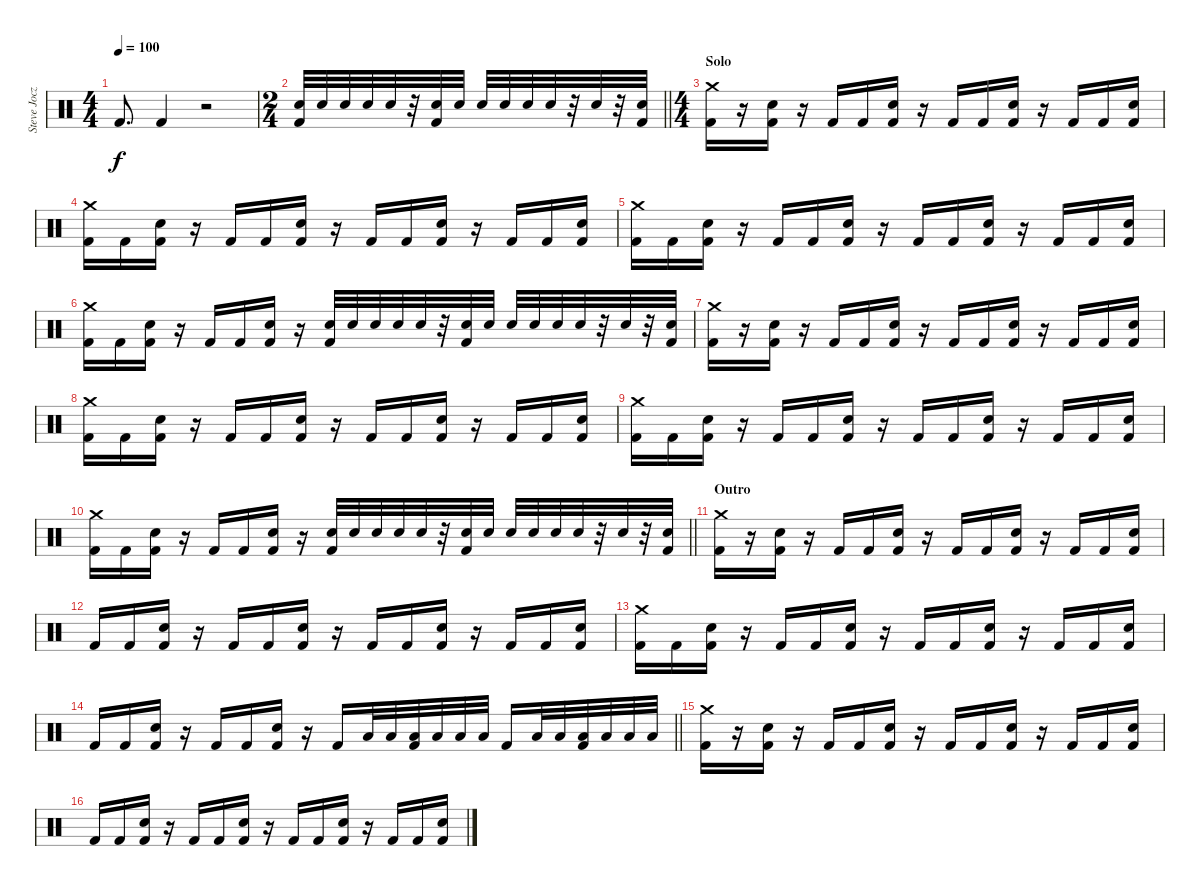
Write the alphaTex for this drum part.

\track ("Steve Jocz" "Steve Jocz") {instrument percussion}
\staff {score}
\articulation defaults
\ts (4 4)
\tempo 100
\clef neutral
\ks c "Kick (hit) 2".8{d dy f} "Kick (hit) 2".4
r.2 |
\ts (2 4)
\barLineRight lightlight
("Snare (hit) 2" "Kick (hit) 2").32 "Snare (hit) 2".32 "Snare (hit) 2".32 "Snare (hit) 2".32 "Snare (hit) 2".32 r.32 ("Snare (hit) 2" "Kick (hit) 2").32 "Snare (hit) 2".32 "Snare (hit) 2".32 "Snare (hit) 2".32 "Snare (hit) 2".32 "Snare (hit) 2".32 r.32 "Snare (hit) 2".32 r.32 ("Snare (hit) 2" "Kick (hit) 2").32 |
\ts (4 4)
\section ("" "Solo")
("Crash medium (hit)" "Kick (hit) 2").16 r.16 ("Snare (hit) 2" "Kick (hit) 2").16 r.16 "Kick (hit) 2".16 "Kick (hit) 2".16 ("Snare (hit) 2" "Kick (hit) 2").16 r.16 "Kick (hit) 2".16 "Kick (hit) 2".16 ("Snare (hit) 2" "Kick (hit) 2").16 r.16 "Kick (hit) 2".16 "Kick (hit) 2".16 ("Snare (hit) 2" "Kick (hit) 2").16 |
("Crash medium (hit)" "Kick (hit) 2").16 "Kick (hit) 2".16 ("Snare (hit) 2" "Kick (hit) 2").16 r.16 "Kick (hit) 2".16 "Kick (hit) 2".16 ("Snare (hit) 2" "Kick (hit) 2").16 r.16 "Kick (hit) 2".16 "Kick (hit) 2".16 ("Snare (hit) 2" "Kick (hit) 2").16 r.16 "Kick (hit) 2".16 "Kick (hit) 2".16 ("Snare (hit) 2" "Kick (hit) 2").16 |
("Crash medium (hit)" "Kick (hit) 2").16 "Kick (hit) 2".16 ("Snare (hit) 2" "Kick (hit) 2").16 r.16 "Kick (hit) 2".16 "Kick (hit) 2".16 ("Snare (hit) 2" "Kick (hit) 2").16 r.16 "Kick (hit) 2".16 "Kick (hit) 2".16 ("Snare (hit) 2" "Kick (hit) 2").16 r.16 "Kick (hit) 2".16 "Kick (hit) 2".16 ("Snare (hit) 2" "Kick (hit) 2").16 |
("Crash medium (hit)" "Kick (hit) 2").16 "Kick (hit) 2".16 ("Snare (hit) 2" "Kick (hit) 2").16 r.16 "Kick (hit) 2".16 "Kick (hit) 2".16 ("Snare (hit) 2" "Kick (hit) 2").16 r.16 ("Snare (hit) 2" "Kick (hit) 2").32 "Snare (hit) 2".32 "Snare (hit) 2".32 "Snare (hit) 2".32 "Snare (hit) 2".32 r.32 ("Snare (hit) 2" "Kick (hit) 2").32 "Snare (hit) 2".32 "Snare (hit) 2".32 "Snare (hit) 2".32 "Snare (hit) 2".32 "Snare (hit) 2".32 r.32 "Snare (hit) 2".32 r.32 ("Snare (hit) 2" "Kick (hit) 2").32 |
("Crash medium (hit)" "Kick (hit) 2").16 r.16 ("Snare (hit) 2" "Kick (hit) 2").16 r.16 "Kick (hit) 2".16 "Kick (hit) 2".16 ("Snare (hit) 2" "Kick (hit) 2").16 r.16 "Kick (hit) 2".16 "Kick (hit) 2".16 ("Snare (hit) 2" "Kick (hit) 2").16 r.16 "Kick (hit) 2".16 "Kick (hit) 2".16 ("Snare (hit) 2" "Kick (hit) 2").16 |
("Crash medium (hit)" "Kick (hit) 2").16 "Kick (hit) 2".16 ("Snare (hit) 2" "Kick (hit) 2").16 r.16 "Kick (hit) 2".16 "Kick (hit) 2".16 ("Snare (hit) 2" "Kick (hit) 2").16 r.16 "Kick (hit) 2".16 "Kick (hit) 2".16 ("Snare (hit) 2" "Kick (hit) 2").16 r.16 "Kick (hit) 2".16 "Kick (hit) 2".16 ("Snare (hit) 2" "Kick (hit) 2").16 |
("Crash medium (hit)" "Kick (hit) 2").16 "Kick (hit) 2".16 ("Snare (hit) 2" "Kick (hit) 2").16 r.16 "Kick (hit) 2".16 "Kick (hit) 2".16 ("Snare (hit) 2" "Kick (hit) 2").16 r.16 "Kick (hit) 2".16 "Kick (hit) 2".16 ("Snare (hit) 2" "Kick (hit) 2").16 r.16 "Kick (hit) 2".16 "Kick (hit) 2".16 ("Snare (hit) 2" "Kick (hit) 2").16 |
\barLineRight lightlight
("Crash medium (hit)" "Kick (hit) 2").16 "Kick (hit) 2".16 ("Snare (hit) 2" "Kick (hit) 2").16 r.16 "Kick (hit) 2".16 "Kick (hit) 2".16 ("Snare (hit) 2" "Kick (hit) 2").16 r.16 ("Snare (hit) 2" "Kick (hit) 2").32 "Snare (hit) 2".32 "Snare (hit) 2".32 "Snare (hit) 2".32 "Snare (hit) 2".32 r.32 ("Snare (hit) 2" "Kick (hit) 2").32 "Snare (hit) 2".32 "Snare (hit) 2".32 "Snare (hit) 2".32 "Snare (hit) 2".32 "Snare (hit) 2".32 r.32 "Snare (hit) 2".32 r.32 ("Snare (hit) 2" "Kick (hit) 2").32 |
\section ("" "Outro")
("Crash medium (hit)" "Kick (hit) 2").16 r.16 ("Snare (hit) 2" "Kick (hit) 2").16 r.16 "Kick (hit) 2".16 "Kick (hit) 2".16 ("Snare (hit) 2" "Kick (hit) 2").16 r.16 "Kick (hit) 2".16 "Kick (hit) 2".16 ("Snare (hit) 2" "Kick (hit) 2").16 r.16 "Kick (hit) 2".16 "Kick (hit) 2".16 ("Snare (hit) 2" "Kick (hit) 2").16 |
"Kick (hit) 2".16 "Kick (hit) 2".16 ("Snare (hit) 2" "Kick (hit) 2").16 r.16 "Kick (hit) 2".16 "Kick (hit) 2".16 ("Snare (hit) 2" "Kick (hit) 2").16 r.16 "Kick (hit) 2".16 "Kick (hit) 2".16 ("Snare (hit) 2" "Kick (hit) 2").16 r.16 "Kick (hit) 2".16 "Kick (hit) 2".16 ("Snare (hit) 2" "Kick (hit) 2").16 |
("Crash medium (hit)" "Kick (hit) 2").16 "Kick (hit) 2".16 ("Snare (hit) 2" "Kick (hit) 2").16 r.16 "Kick (hit) 2".16 "Kick (hit) 2".16 ("Snare (hit) 2" "Kick (hit) 2").16 r.16 "Kick (hit) 2".16 "Kick (hit) 2".16 ("Snare (hit) 2" "Kick (hit) 2").16 r.16 "Kick (hit) 2".16 "Kick (hit) 2".16 ("Snare (hit) 2" "Kick (hit) 2").16 |
\barLineRight lightlight "Kick (hit) 2".16 "Kick (hit) 2".16
("Snare (hit) 2" "Kick (hit) 2").16 r.16 "Kick (hit) 2".16 "Kick (hit) 2".16 ("Snare (hit) 2" "Kick (hit) 2").16 r.16 "Kick (hit) 2".16 "Low Tom (hit)".32 "Low Tom (hit)".32 ("Low Tom (hit)" "Kick (hit) 2").32 "Low Tom (hit)".32 "Low Tom (hit)".32 "Low Tom (hit)".32 "Kick (hit) 2".16 "Low Tom (hit)".32 "Low Tom (hit)".32 ("Low Tom (hit)" "Kick (hit) 2").32 "Low Tom (hit)".32 "Low Tom (hit)".32 "Low Tom (hit)".32 |
("Crash medium (hit)" "Kick (hit) 2").16 r.16 ("Snare (hit) 2" "Kick (hit) 2").16 r.16 "Kick (hit) 2".16 "Kick (hit) 2".16 ("Snare (hit) 2" "Kick (hit) 2").16 r.16 "Kick (hit) 2".16 "Kick (hit) 2".16 ("Snare (hit) 2" "Kick (hit) 2").16 r.16 "Kick (hit) 2".16 "Kick (hit) 2".16 ("Snare (hit) 2" "Kick (hit) 2").16 |
"Kick (hit) 2".16 "Kick (hit) 2".16 ("Snare (hit) 2" "Kick (hit) 2").16 r.16 "Kick (hit) 2".16 "Kick (hit) 2".16 ("Snare (hit) 2" "Kick (hit) 2").16 r.16 "Kick (hit) 2".16 "Kick (hit) 2".16 ("Snare (hit) 2" "Kick (hit) 2").16 r.16 "Kick (hit) 2".16 "Kick (hit) 2".16 ("Snare (hit) 2" "Kick (hit) 2").16
